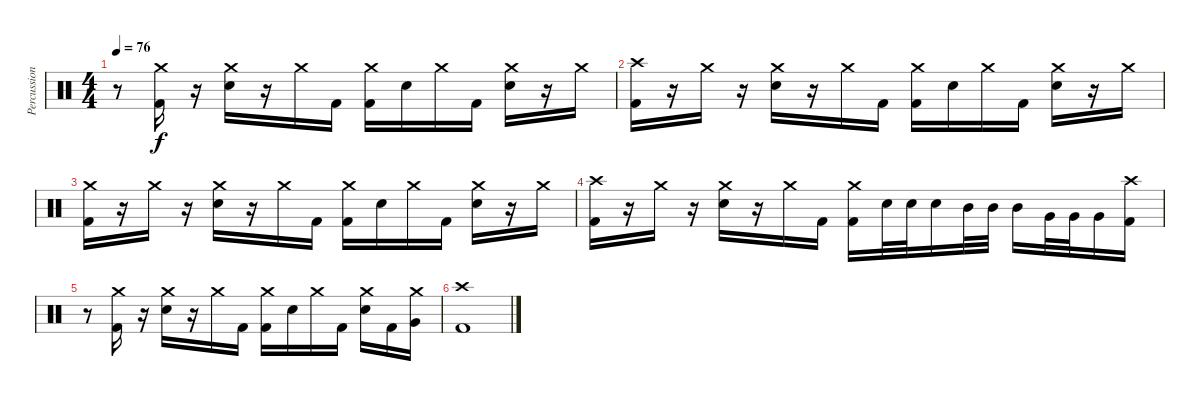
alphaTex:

\track ("Percussion" "Percussion") {instrument percussion}
\staff {score}
\articulation defaults
\ts (4 4)
\tempo 76
\clef neutral
\ks c
r.8{dy f} ("Crash medium (hit)" "Kick (hit) 2").16 r.16 ("Crash medium (hit)" "Electric Snare (hit)").16 r.16 "Crash medium (hit)".16 "Kick (hit) 2".16 ("Crash medium (hit)" "Kick (hit) 2").16 "Electric Snare (hit)".16 "Crash medium (hit)".16 "Kick (hit) 2".16 ("Crash medium (hit)" "Electric Snare (hit)").16 r.16 "Crash medium (hit)".16 |
("Crash high (hit)" "Kick (hit) 2").16 r.16 "Crash medium (hit)".16 r.16 ("Crash medium (hit)" "Electric Snare (hit)").16 r.16 "Crash medium (hit)".16 "Kick (hit) 2".16 ("Crash medium (hit)" "Kick (hit) 2").16 "Electric Snare (hit)".16 "Crash medium (hit)".16 "Kick (hit) 2".16 ("Crash medium (hit)" "Electric Snare (hit)").16 r.16 "Crash medium (hit)".16 |
("Crash medium (hit)" "Kick (hit) 2").16 r.16 "Crash medium (hit)".16 r.16 ("Crash medium (hit)" "Electric Snare (hit)").16 r.16 "Crash medium (hit)".16 "Kick (hit) 2".16 ("Crash medium (hit)" "Kick (hit) 2").16 "Electric Snare (hit)".16 "Crash medium (hit)".16 "Kick (hit) 2".16 ("Crash medium (hit)" "Electric Snare (hit)").16 r.16 "Crash medium (hit)".16 |
("Crash high (hit)" "Kick (hit) 2").16 r.16 "Crash medium (hit)".16 r.16 ("Crash medium (hit)" "Electric Snare (hit)").16 r.16 "Crash medium (hit)".16 "Kick (hit) 2".16 ("Crash medium (hit)" "Kick (hit) 2").16 "Snare (hit) 2".32 "Snare (hit) 2".32 "Snare (hit) 2".16 "Mid Tom (hit)".32 "Mid Tom (hit)".32 "Mid Tom (hit)".16 "Very Low Tom (hit)".32 "Very Low Tom (hit)".32 "Very Low Tom (hit)".16 ("Crash high (hit)" "Kick (hit) 2").16 |
r.8 ("Crash medium (hit)" "Kick (hit) 2").16 r.16 ("Crash medium (hit)" "Electric Snare (hit)").16 r.16 "Crash medium (hit)".16 "Kick (hit) 2".16 ("Crash medium (hit)" "Kick (hit) 2").16 "Electric Snare (hit)".16 "Crash medium (hit)".16 "Kick (hit) 2".16 ("Crash medium (hit)" "Electric Snare (hit)").16 "Kick (hit) 2".16 ("Crash medium (hit)" "Very Low Tom (hit)").16 |
("Crash high (hit)" "Kick (hit) 2").1
